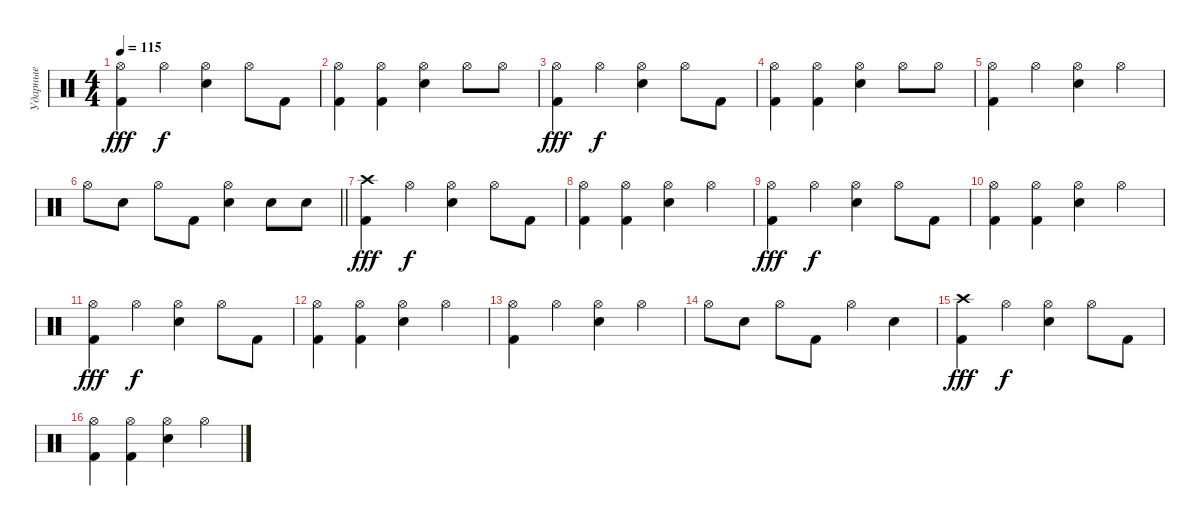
\track ("Ударные" "Ударные") {instrument percussion}
\staff {score}
\articulation defaults
\ts (4 4)
\tempo 115
\clef neutral
\ks c
("Kick (hit) 2" "Hi-Hat (open)").4{dy fff} "Hi-Hat (open)".4{dy f} ("Snare (hit) 2" "Hi-Hat (open)").4 "Hi-Hat (open)".8 "Kick (hit) 2".8 |
("Kick (hit) 2" "Hi-Hat (open)").4 ("Kick (hit) 2" "Hi-Hat (open)").4 ("Snare (hit) 2" "Hi-Hat (open)").4 "Hi-Hat (open)".8 "Hi-Hat (open)".8 |
("Kick (hit) 2" "Hi-Hat (open)").4{dy fff} "Hi-Hat (open)".4{dy f} ("Snare (hit) 2" "Hi-Hat (open)").4 "Hi-Hat (open)".8 "Kick (hit) 2".8 |
("Kick (hit) 2" "Hi-Hat (open)").4 ("Kick (hit) 2" "Hi-Hat (open)").4 ("Snare (hit) 2" "Hi-Hat (open)").4 "Hi-Hat (open)".8 "Hi-Hat (open)".8 |
("Kick (hit) 2" "Hi-Hat (open)").4 "Hi-Hat (open)".4 ("Snare (hit) 2" "Hi-Hat (open)").4 "Hi-Hat (open)".4 |
\barLineRight lightlight "Hi-Hat (open)".8 "Snare (hit) 2".8 "Hi-Hat (open)".8 "Kick (hit) 2".8
("Snare (hit) 2" "Hi-Hat (open)").4 "Snare (hit) 2".8 "Snare (hit) 2".8 |
("Kick (hit) 2" "Crash high (hit)").4{dy fff} "Hi-Hat (open)".4{dy f} ("Snare (hit) 2" "Hi-Hat (open)").4 "Hi-Hat (open)".8 "Kick (hit) 2".8 |
("Kick (hit) 2" "Hi-Hat (open)").4 ("Kick (hit) 2" "Hi-Hat (open)").4 ("Snare (hit) 2" "Hi-Hat (open)").4 "Hi-Hat (open)".4 |
("Kick (hit) 2" "Hi-Hat (open)").4{dy fff} "Hi-Hat (open)".4{dy f} ("Snare (hit) 2" "Hi-Hat (open)").4 "Hi-Hat (open)".8 "Kick (hit) 2".8 |
("Kick (hit) 2" "Hi-Hat (open)").4 ("Kick (hit) 2" "Hi-Hat (open)").4 ("Snare (hit) 2" "Hi-Hat (open)").4 "Hi-Hat (open)".4 |
("Kick (hit) 2" "Hi-Hat (open)").4{dy fff} "Hi-Hat (open)".4{dy f} ("Snare (hit) 2" "Hi-Hat (open)").4 "Hi-Hat (open)".8 "Kick (hit) 2".8 |
("Kick (hit) 2" "Hi-Hat (open)").4 ("Kick (hit) 2" "Hi-Hat (open)").4 ("Snare (hit) 2" "Hi-Hat (open)").4 "Hi-Hat (open)".4 |
("Kick (hit) 2" "Hi-Hat (open)").4 "Hi-Hat (open)".4 ("Snare (hit) 2" "Hi-Hat (open)").4 "Hi-Hat (open)".4 |
"Hi-Hat (open)".8 "Snare (hit) 2".8 "Hi-Hat (open)".8 "Kick (hit) 2".8 "Hi-Hat (open)".4 "Snare (hit) 2".4 |
("Kick (hit) 2" "Crash high (hit)").4{dy fff} "Hi-Hat (open)".4{dy f} ("Snare (hit) 2" "Hi-Hat (open)").4 "Hi-Hat (open)".8 "Kick (hit) 2".8 |
("Kick (hit) 2" "Hi-Hat (open)").4 ("Kick (hit) 2" "Hi-Hat (open)").4 ("Snare (hit) 2" "Hi-Hat (open)").4 "Hi-Hat (open)".4
